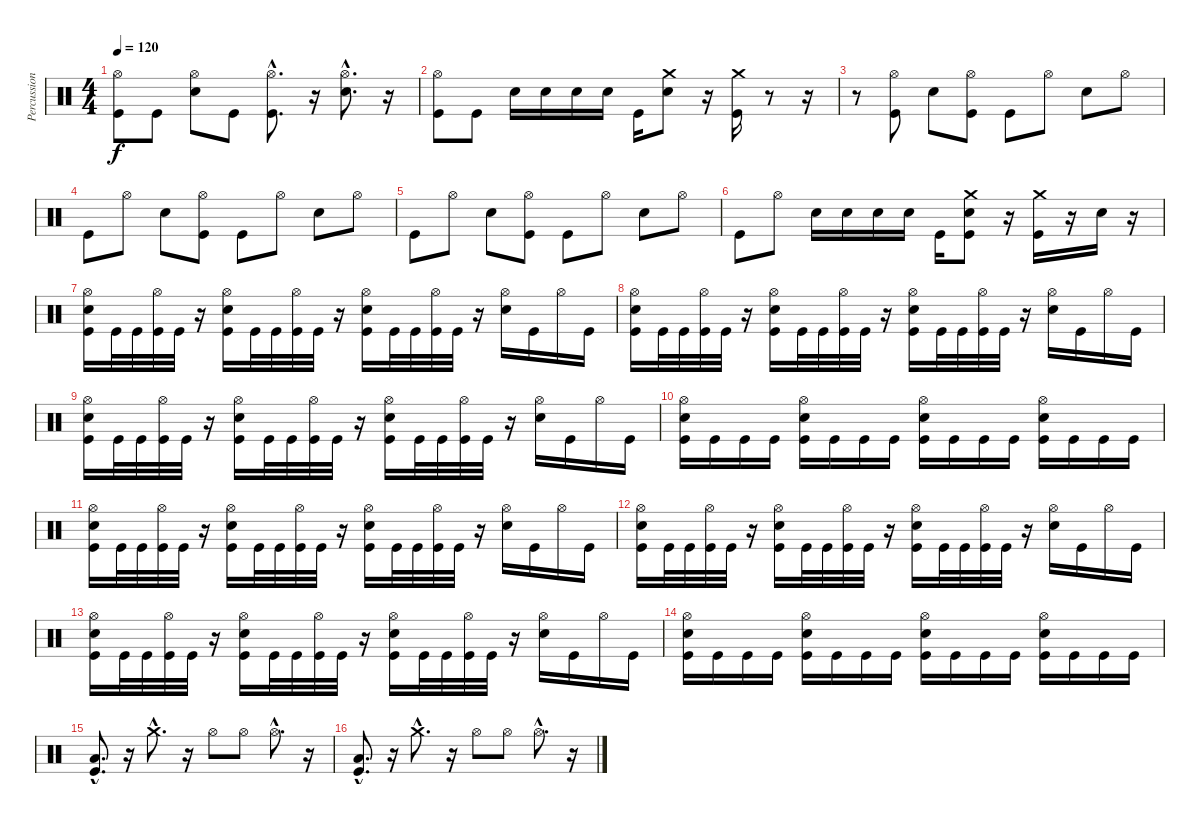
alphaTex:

\track ("Percussion" "Percussion") {instrument percussion}
\staff {score}
\articulation defaults
\ts (4 4)
\tempo 120
\clef neutral
\ks c
("Hi-Hat (open)" "Kick (hit)").8{dy f} "Kick (hit)".8 ("Hi-Hat (open)" "Electric Snare (hit)").8 "Kick (hit)".8 ("Hi-Hat (open)"{hac} "Kick (hit)"{hac}).8{d} r.16 ("Hi-Hat (open)"{hac} "Electric Snare (hit)"{hac}).8{d} r.16 |
("Hi-Hat (open)" "Kick (hit)").8 "Kick (hit)".8 "Electric Snare (hit)".16 "Electric Snare (hit)".16 "Electric Snare (hit)".16 "Electric Snare (hit)".16 "Kick (hit)".16 ("Electric Snare (hit)" "Crash medium (hit)").8 r.16 ("Kick (hit)" "Crash medium (hit)").16 r.8 r.16 |
r.8 ("Hi-Hat (open)" "Kick (hit)").8 "Electric Snare (hit)".8 ("Hi-Hat (open)" "Kick (hit)").8 "Kick (hit)".8 "Hi-Hat (open)".8 "Electric Snare (hit)".8 "Hi-Hat (open)".8 |
"Kick (hit)".8 "Hi-Hat (open)".8 "Electric Snare (hit)".8 ("Hi-Hat (open)" "Kick (hit)").8 "Kick (hit)".8 "Hi-Hat (open)".8 "Electric Snare (hit)".8 "Hi-Hat (open)".8 |
"Kick (hit)".8 "Hi-Hat (open)".8 "Electric Snare (hit)".8 ("Hi-Hat (open)" "Kick (hit)").8 "Kick (hit)".8 "Hi-Hat (open)".8 "Electric Snare (hit)".8 "Hi-Hat (open)".8 |
"Kick (hit)".8 "Hi-Hat (open)".8 "Electric Snare (hit)".16 "Electric Snare (hit)".16 "Electric Snare (hit)".16 "Electric Snare (hit)".16 "Kick (hit)".16 ("Electric Snare (hit)" "Kick (hit)" "Crash medium (hit)").8 r.16 ("Kick (hit)" "Crash medium (hit)").16 r.16 "Electric Snare (hit)".16 r.16 |
("Hi-Hat (open)" "Electric Snare (hit)" "Kick (hit)").16 "Kick (hit)".32 "Kick (hit)".32 ("Hi-Hat (open)" "Kick (hit)").32 "Kick (hit)".32 r.16 ("Hi-Hat (open)" "Electric Snare (hit)" "Kick (hit)").16 "Kick (hit)".32 "Kick (hit)".32 ("Hi-Hat (open)" "Kick (hit)").32 "Kick (hit)".32 r.16 ("Hi-Hat (open)" "Electric Snare (hit)" "Kick (hit)").16 "Kick (hit)".32 "Kick (hit)".32 ("Hi-Hat (open)" "Kick (hit)").32 "Kick (hit)".32 r.16 ("Hi-Hat (open)" "Electric Snare (hit)").16 "Kick (hit)".16 "Hi-Hat (open)".16 "Kick (hit)".16 |
("Hi-Hat (open)" "Electric Snare (hit)" "Kick (hit)").16 "Kick (hit)".32 "Kick (hit)".32 ("Hi-Hat (open)" "Kick (hit)").32 "Kick (hit)".32 r.16 ("Hi-Hat (open)" "Electric Snare (hit)" "Kick (hit)").16 "Kick (hit)".32 "Kick (hit)".32 ("Hi-Hat (open)" "Kick (hit)").32 "Kick (hit)".32 r.16 ("Hi-Hat (open)" "Electric Snare (hit)" "Kick (hit)").16 "Kick (hit)".32 "Kick (hit)".32 ("Hi-Hat (open)" "Kick (hit)").32 "Kick (hit)".32 r.16 ("Hi-Hat (open)" "Electric Snare (hit)").16 "Kick (hit)".16 "Hi-Hat (open)".16 "Kick (hit)".16 |
("Hi-Hat (open)" "Electric Snare (hit)" "Kick (hit)").16 "Kick (hit)".32 "Kick (hit)".32 ("Hi-Hat (open)" "Kick (hit)").32 "Kick (hit)".32 r.16 ("Hi-Hat (open)" "Electric Snare (hit)" "Kick (hit)").16 "Kick (hit)".32 "Kick (hit)".32 ("Hi-Hat (open)" "Kick (hit)").32 "Kick (hit)".32 r.16 ("Hi-Hat (open)" "Electric Snare (hit)" "Kick (hit)").16 "Kick (hit)".32 "Kick (hit)".32 ("Hi-Hat (open)" "Kick (hit)").32 "Kick (hit)".32 r.16 ("Hi-Hat (open)" "Electric Snare (hit)").16 "Kick (hit)".16 "Hi-Hat (open)".16 "Kick (hit)".16 |
("Hi-Hat (open)" "Electric Snare (hit)" "Kick (hit)").16 "Kick (hit)".16 "Kick (hit)".16 "Kick (hit)".16 ("Hi-Hat (open)" "Electric Snare (hit)" "Kick (hit)").16 "Kick (hit)".16 "Kick (hit)".16 "Kick (hit)".16 ("Hi-Hat (open)" "Electric Snare (hit)" "Kick (hit)").16 "Kick (hit)".16 "Kick (hit)".16 "Kick (hit)".16 ("Hi-Hat (open)" "Electric Snare (hit)" "Kick (hit)").16 "Kick (hit)".16 "Kick (hit)".16 "Kick (hit)".16 |
("Hi-Hat (open)" "Electric Snare (hit)" "Kick (hit)").16 "Kick (hit)".32 "Kick (hit)".32 ("Hi-Hat (open)" "Kick (hit)").32 "Kick (hit)".32 r.16 ("Hi-Hat (open)" "Electric Snare (hit)" "Kick (hit)").16 "Kick (hit)".32 "Kick (hit)".32 ("Hi-Hat (open)" "Kick (hit)").32 "Kick (hit)".32 r.16 ("Hi-Hat (open)" "Electric Snare (hit)" "Kick (hit)").16 "Kick (hit)".32 "Kick (hit)".32 ("Hi-Hat (open)" "Kick (hit)").32 "Kick (hit)".32 r.16 ("Hi-Hat (open)" "Electric Snare (hit)").16 "Kick (hit)".16 "Hi-Hat (open)".16 "Kick (hit)".16 |
("Hi-Hat (open)" "Electric Snare (hit)" "Kick (hit)").16 "Kick (hit)".32 "Kick (hit)".32 ("Hi-Hat (open)" "Kick (hit)").32 "Kick (hit)".32 r.16 ("Hi-Hat (open)" "Electric Snare (hit)" "Kick (hit)").16 "Kick (hit)".32 "Kick (hit)".32 ("Hi-Hat (open)" "Kick (hit)").32 "Kick (hit)".32 r.16 ("Hi-Hat (open)" "Electric Snare (hit)" "Kick (hit)").16 "Kick (hit)".32 "Kick (hit)".32 ("Hi-Hat (open)" "Kick (hit)").32 "Kick (hit)".32 r.16 ("Hi-Hat (open)" "Electric Snare (hit)").16 "Kick (hit)".16 "Hi-Hat (open)".16 "Kick (hit)".16 |
("Hi-Hat (open)" "Electric Snare (hit)" "Kick (hit)").16 "Kick (hit)".32 "Kick (hit)".32 ("Hi-Hat (open)" "Kick (hit)").32 "Kick (hit)".32 r.16 ("Hi-Hat (open)" "Electric Snare (hit)" "Kick (hit)").16 "Kick (hit)".32 "Kick (hit)".32 ("Hi-Hat (open)" "Kick (hit)").32 "Kick (hit)".32 r.16 ("Hi-Hat (open)" "Electric Snare (hit)" "Kick (hit)").16 "Kick (hit)".32 "Kick (hit)".32 ("Hi-Hat (open)" "Kick (hit)").32 "Kick (hit)".32 r.16 ("Hi-Hat (open)" "Electric Snare (hit)").16 "Kick (hit)".16 "Hi-Hat (open)".16 "Kick (hit)".16 |
("Hi-Hat (open)" "Electric Snare (hit)" "Kick (hit)").16 "Kick (hit)".16 "Kick (hit)".16 "Kick (hit)".16 ("Hi-Hat (open)" "Electric Snare (hit)" "Kick (hit)").16 "Kick (hit)".16 "Kick (hit)".16 "Kick (hit)".16 ("Hi-Hat (open)" "Electric Snare (hit)" "Kick (hit)").16 "Kick (hit)".16 "Kick (hit)".16 "Kick (hit)".16 ("Hi-Hat (open)" "Electric Snare (hit)" "Kick (hit)").16 "Kick (hit)".16 "Kick (hit)".16 "Kick (hit)".16 |
("Kick (hit)"{hac} "Low Floor Tom (hit)"{hac}).8{d} r.16 "Crash medium (hit)"{hac}.8{d} r.16 "Hi-Hat (open)".8 "Hi-Hat (open)".8 "Hi-Hat (open)"{hac}.8{d} r.16 |
("Kick (hit)"{hac} "Low Floor Tom (hit)"{hac}).8{d} r.16 "Crash medium (hit)"{hac}.8{d} r.16 "Hi-Hat (open)".8 "Hi-Hat (open)".8 "Hi-Hat (open)"{hac}.8{d} r.16
